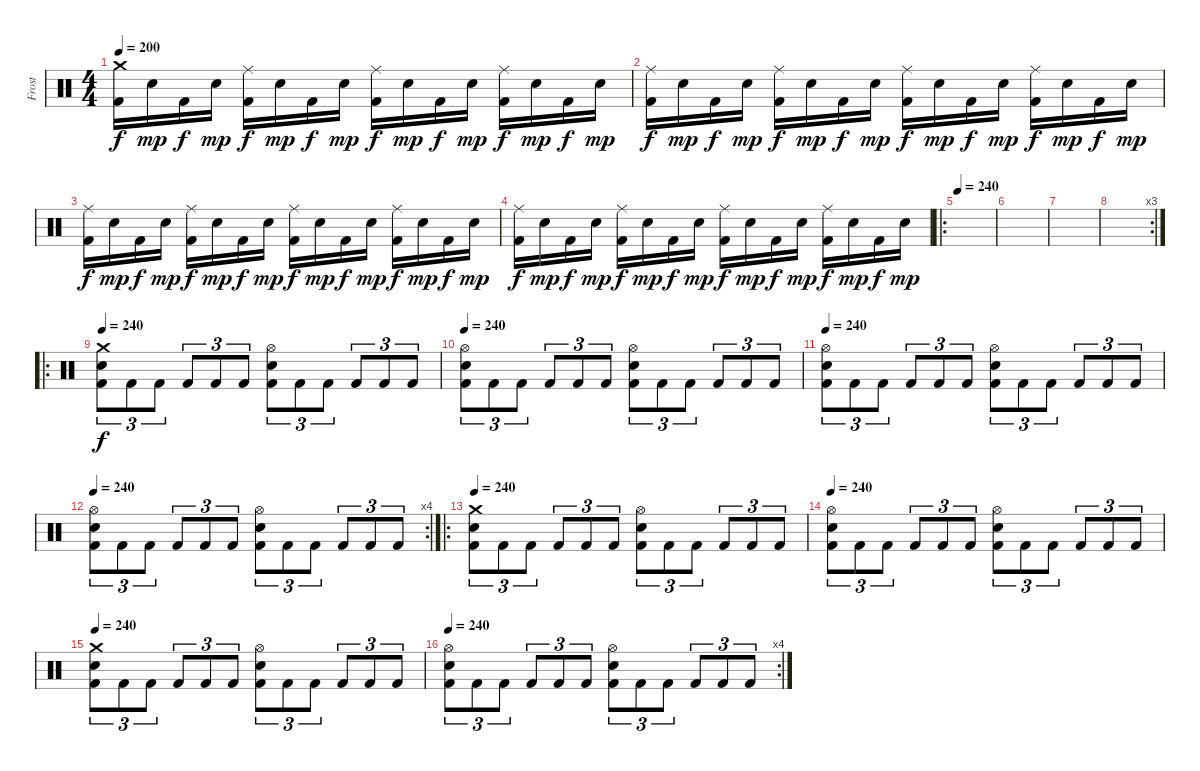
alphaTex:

\track ("Frost" "Frost") {instrument percussion}
\staff {score}
\articulation defaults
\ts (4 4)
\tempo 200
\clef neutral
\ks c
("Crash medium (hit)" "Kick (hit) 2").16{dy f} "Electric Snare (hit)".16{dy mp} "Kick (hit) 2".16{dy f} "Electric Snare (hit)".16{dy mp} ("Ride (middle)" "Kick (hit) 2").16{dy f} "Electric Snare (hit)".16{dy mp} "Kick (hit) 2".16{dy f} "Electric Snare (hit)".16{dy mp} ("Ride (middle)" "Kick (hit) 2").16{dy f} "Electric Snare (hit)".16{dy mp} "Kick (hit) 2".16{dy f} "Electric Snare (hit)".16{dy mp} ("Ride (middle)" "Kick (hit) 2").16{dy f} "Electric Snare (hit)".16{dy mp} "Kick (hit) 2".16{dy f} "Electric Snare (hit)".16{dy mp} |
("Ride (middle)" "Kick (hit) 2").16{dy f} "Electric Snare (hit)".16{dy mp} "Kick (hit) 2".16{dy f} "Electric Snare (hit)".16{dy mp} ("Ride (middle)" "Kick (hit) 2").16{dy f} "Electric Snare (hit)".16{dy mp} "Kick (hit) 2".16{dy f} "Electric Snare (hit)".16{dy mp} ("Ride (middle)" "Kick (hit) 2").16{dy f} "Electric Snare (hit)".16{dy mp} "Kick (hit) 2".16{dy f} "Electric Snare (hit)".16{dy mp} ("Ride (middle)" "Kick (hit) 2").16{dy f} "Electric Snare (hit)".16{dy mp} "Kick (hit) 2".16{dy f} "Electric Snare (hit)".16{dy mp} |
("Ride (middle)" "Kick (hit) 2").16{dy f} "Electric Snare (hit)".16{dy mp} "Kick (hit) 2".16{dy f} "Electric Snare (hit)".16{dy mp} ("Ride (middle)" "Kick (hit) 2").16{dy f} "Electric Snare (hit)".16{dy mp} "Kick (hit) 2".16{dy f} "Electric Snare (hit)".16{dy mp} ("Ride (middle)" "Kick (hit) 2").16{dy f} "Electric Snare (hit)".16{dy mp} "Kick (hit) 2".16{dy f} "Electric Snare (hit)".16{dy mp} ("Ride (middle)" "Kick (hit) 2").16{dy f} "Electric Snare (hit)".16{dy mp} "Kick (hit) 2".16{dy f} "Electric Snare (hit)".16{dy mp} |
("Ride (middle)" "Kick (hit) 2").16{dy f} "Electric Snare (hit)".16{dy mp} "Kick (hit) 2".16{dy f} "Electric Snare (hit)".16{dy mp} ("Ride (middle)" "Kick (hit) 2").16{dy f} "Electric Snare (hit)".16{dy mp} "Kick (hit) 2".16{dy f} "Electric Snare (hit)".16{dy mp} ("Ride (middle)" "Kick (hit) 2").16{dy f} "Electric Snare (hit)".16{dy mp} "Kick (hit) 2".16{dy f} "Electric Snare (hit)".16{dy mp} ("Ride (middle)" "Kick (hit) 2").16{dy f} "Electric Snare (hit)".16{dy mp} "Kick (hit) 2".16{dy f} "Electric Snare (hit)".16{dy mp} |
\ro
\tempo 240
|
|
|
\rc 3
|
\ro
\tempo 240
("Crash medium (hit)" "Electric Snare (hit)" "Kick (hit) 2").8{tu (3 2) dy f} "Kick (hit) 2".8{tu (3 2)} "Kick (hit) 2".8{tu (3 2)} "Kick (hit) 2".8{tu (3 2)} "Kick (hit) 2".8{tu (3 2)} "Kick (hit) 2".8{tu (3 2)} ("Hi-Hat (open)" "Electric Snare (hit)" "Kick (hit) 2").8{tu (3 2)} "Kick (hit) 2".8{tu (3 2)} "Kick (hit) 2".8{tu (3 2)} "Kick (hit) 2".8{tu (3 2)} "Kick (hit) 2".8{tu (3 2)} "Kick (hit) 2".8{tu (3 2)} |
\tempo 240
("Hi-Hat (open)" "Electric Snare (hit)" "Kick (hit) 2").8{tu (3 2)} "Kick (hit) 2".8{tu (3 2)} "Kick (hit) 2".8{tu (3 2)} "Kick (hit) 2".8{tu (3 2)} "Kick (hit) 2".8{tu (3 2)} "Kick (hit) 2".8{tu (3 2)} ("Hi-Hat (open)" "Electric Snare (hit)" "Kick (hit) 2").8{tu (3 2)} "Kick (hit) 2".8{tu (3 2)} "Kick (hit) 2".8{tu (3 2)} "Kick (hit) 2".8{tu (3 2)} "Kick (hit) 2".8{tu (3 2)} "Kick (hit) 2".8{tu (3 2)} |
\tempo 240
("Hi-Hat (open)" "Electric Snare (hit)" "Kick (hit) 2").8{tu (3 2)} "Kick (hit) 2".8{tu (3 2)} "Kick (hit) 2".8{tu (3 2)} "Kick (hit) 2".8{tu (3 2)} "Kick (hit) 2".8{tu (3 2)} "Kick (hit) 2".8{tu (3 2)} ("Hi-Hat (open)" "Electric Snare (hit)" "Kick (hit) 2").8{tu (3 2)} "Kick (hit) 2".8{tu (3 2)} "Kick (hit) 2".8{tu (3 2)} "Kick (hit) 2".8{tu (3 2)} "Kick (hit) 2".8{tu (3 2)} "Kick (hit) 2".8{tu (3 2)} |
\rc 4
\tempo 240
("Hi-Hat (open)" "Electric Snare (hit)" "Kick (hit) 2").8{tu (3 2)} "Kick (hit) 2".8{tu (3 2)} "Kick (hit) 2".8{tu (3 2)} "Kick (hit) 2".8{tu (3 2)} "Kick (hit) 2".8{tu (3 2)} "Kick (hit) 2".8{tu (3 2)} ("Hi-Hat (open)" "Electric Snare (hit)" "Kick (hit) 2").8{tu (3 2)} "Kick (hit) 2".8{tu (3 2)} "Kick (hit) 2".8{tu (3 2)} "Kick (hit) 2".8{tu (3 2)} "Kick (hit) 2".8{tu (3 2)} "Kick (hit) 2".8{tu (3 2)} |
\ro
\tempo 240
("Crash medium (hit)" "Electric Snare (hit)" "Kick (hit) 2").8{tu (3 2)} "Kick (hit) 2".8{tu (3 2)} "Kick (hit) 2".8{tu (3 2)} "Kick (hit) 2".8{tu (3 2)} "Kick (hit) 2".8{tu (3 2)} "Kick (hit) 2".8{tu (3 2)} ("Hi-Hat (open)" "Electric Snare (hit)" "Kick (hit) 2").8{tu (3 2)} "Kick (hit) 2".8{tu (3 2)} "Kick (hit) 2".8{tu (3 2)} "Kick (hit) 2".8{tu (3 2)} "Kick (hit) 2".8{tu (3 2)} "Kick (hit) 2".8{tu (3 2)} |
\tempo 240
("Hi-Hat (open)" "Electric Snare (hit)" "Kick (hit) 2").8{tu (3 2)} "Kick (hit) 2".8{tu (3 2)} "Kick (hit) 2".8{tu (3 2)} "Kick (hit) 2".8{tu (3 2)} "Kick (hit) 2".8{tu (3 2)} "Kick (hit) 2".8{tu (3 2)} ("Hi-Hat (open)" "Electric Snare (hit)" "Kick (hit) 2").8{tu (3 2)} "Kick (hit) 2".8{tu (3 2)} "Kick (hit) 2".8{tu (3 2)} "Kick (hit) 2".8{tu (3 2)} "Kick (hit) 2".8{tu (3 2)} "Kick (hit) 2".8{tu (3 2)} |
\tempo 240
("Crash medium (hit)" "Electric Snare (hit)" "Kick (hit) 2").8{tu (3 2)} "Kick (hit) 2".8{tu (3 2)} "Kick (hit) 2".8{tu (3 2)} "Kick (hit) 2".8{tu (3 2)} "Kick (hit) 2".8{tu (3 2)} "Kick (hit) 2".8{tu (3 2)} ("Hi-Hat (open)" "Electric Snare (hit)" "Kick (hit) 2").8{tu (3 2)} "Kick (hit) 2".8{tu (3 2)} "Kick (hit) 2".8{tu (3 2)} "Kick (hit) 2".8{tu (3 2)} "Kick (hit) 2".8{tu (3 2)} "Kick (hit) 2".8{tu (3 2)} |
\rc 4
\tempo 240
("Hi-Hat (open)" "Electric Snare (hit)" "Kick (hit) 2").8{tu (3 2)} "Kick (hit) 2".8{tu (3 2)} "Kick (hit) 2".8{tu (3 2)} "Kick (hit) 2".8{tu (3 2)} "Kick (hit) 2".8{tu (3 2)} "Kick (hit) 2".8{tu (3 2)} ("Hi-Hat (open)" "Electric Snare (hit)" "Kick (hit) 2").8{tu (3 2)} "Kick (hit) 2".8{tu (3 2)} "Kick (hit) 2".8{tu (3 2)} "Kick (hit) 2".8{tu (3 2)} "Kick (hit) 2".8{tu (3 2)} "Kick (hit) 2".8{tu (3 2)}
